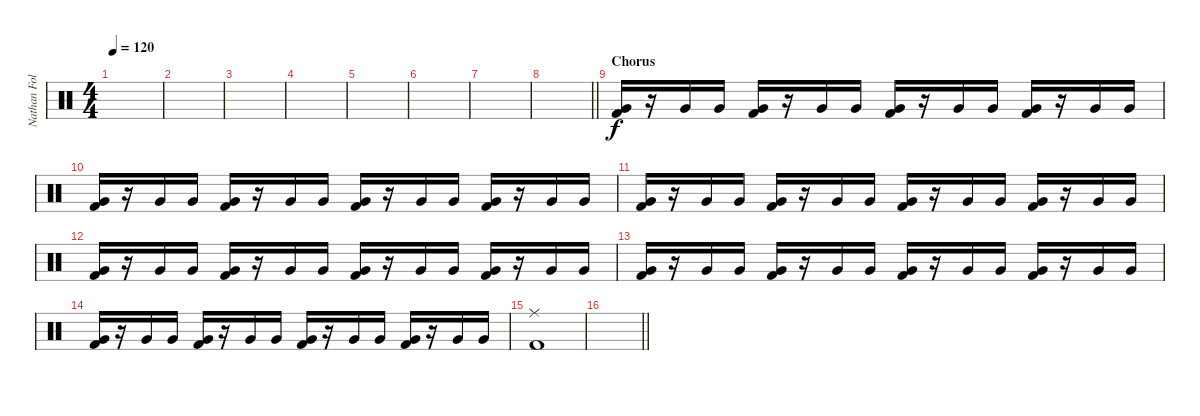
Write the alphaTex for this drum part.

\track ("Nathan Followill - Drums" "Nathan Fol") {instrument percussion}
\staff {score}
\articulation defaults
\ts (4 4)
\tempo 120
\clef neutral
\ks c
|
|
|
|
|
|
|
\barLineRight lightlight
|
\section ("" "Chorus")
("Very Low Tom (hit)" "Kick (hit) 2").16 r.16 "Very Low Tom (hit)".16 "Very Low Tom (hit)".16 ("Very Low Tom (hit)" "Kick (hit) 2").16 r.16 "Very Low Tom (hit)".16 "Very Low Tom (hit)".16 ("Very Low Tom (hit)" "Kick (hit) 2").16 r.16 "Very Low Tom (hit)".16 "Very Low Tom (hit)".16 ("Very Low Tom (hit)" "Kick (hit) 2").16 r.16 "Very Low Tom (hit)".16 "Very Low Tom (hit)".16 |
("Very Low Tom (hit)" "Kick (hit) 2").16 r.16 "Very Low Tom (hit)".16 "Very Low Tom (hit)".16 ("Very Low Tom (hit)" "Kick (hit) 2").16 r.16 "Very Low Tom (hit)".16 "Very Low Tom (hit)".16 ("Very Low Tom (hit)" "Kick (hit) 2").16 r.16 "Very Low Tom (hit)".16 "Very Low Tom (hit)".16 ("Very Low Tom (hit)" "Kick (hit) 2").16 r.16 "Very Low Tom (hit)".16 "Very Low Tom (hit)".16 |
("Very Low Tom (hit)" "Kick (hit) 2").16 r.16 "Very Low Tom (hit)".16 "Very Low Tom (hit)".16 ("Very Low Tom (hit)" "Kick (hit) 2").16 r.16 "Very Low Tom (hit)".16 "Very Low Tom (hit)".16 ("Very Low Tom (hit)" "Kick (hit) 2").16 r.16 "Very Low Tom (hit)".16 "Very Low Tom (hit)".16 ("Very Low Tom (hit)" "Kick (hit) 2").16 r.16 "Very Low Tom (hit)".16 "Very Low Tom (hit)".16 |
("Very Low Tom (hit)" "Kick (hit) 2").16 r.16 "Very Low Tom (hit)".16 "Very Low Tom (hit)".16 ("Very Low Tom (hit)" "Kick (hit) 2").16 r.16 "Very Low Tom (hit)".16 "Very Low Tom (hit)".16 ("Very Low Tom (hit)" "Kick (hit) 2").16 r.16 "Very Low Tom (hit)".16 "Very Low Tom (hit)".16 ("Very Low Tom (hit)" "Kick (hit) 2").16 r.16 "Very Low Tom (hit)".16 "Very Low Tom (hit)".16 |
("Very Low Tom (hit)" "Kick (hit) 2").16 r.16 "Very Low Tom (hit)".16 "Very Low Tom (hit)".16 ("Very Low Tom (hit)" "Kick (hit) 2").16 r.16 "Very Low Tom (hit)".16 "Very Low Tom (hit)".16 ("Very Low Tom (hit)" "Kick (hit) 2").16 r.16 "Very Low Tom (hit)".16 "Very Low Tom (hit)".16 ("Very Low Tom (hit)" "Kick (hit) 2").16 r.16 "Very Low Tom (hit)".16 "Very Low Tom (hit)".16 |
("Very Low Tom (hit)" "Kick (hit) 2").16 r.16 "Very Low Tom (hit)".16 "Very Low Tom (hit)".16 ("Very Low Tom (hit)" "Kick (hit) 2").16 r.16 "Very Low Tom (hit)".16 "Very Low Tom (hit)".16 ("Very Low Tom (hit)" "Kick (hit) 2").16 r.16 "Very Low Tom (hit)".16 "Very Low Tom (hit)".16 ("Very Low Tom (hit)" "Kick (hit) 2").16 r.16 "Very Low Tom (hit)".16 "Very Low Tom (hit)".16 |
("Ride (middle)" "Kick (hit) 2").1 |
\barLineRight lightlight
